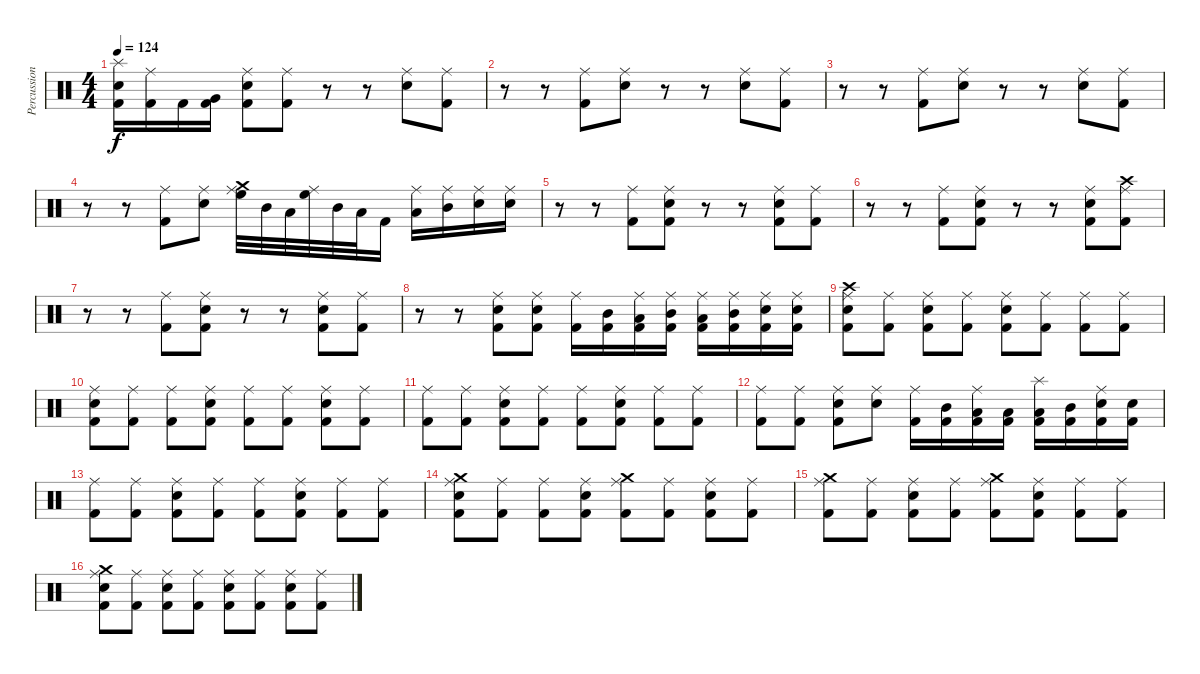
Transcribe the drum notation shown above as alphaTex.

\track ("Percussions" "Percussion") {instrument percussion}
\staff {score}
\articulation defaults
\ts (4 4)
\tempo 124
\clef neutral
\ks c
("Kick (hit) 2" "Electric Snare (hit)" "Splash (hit)").16{dy f} ("Kick (hit) 2" "Ride (middle)").16 "Kick (hit) 2".16 ("Kick (hit) 2" "Very Low Tom (hit)").16 ("Kick (hit) 2" "Electric Snare (hit)" "Ride (middle)").8 ("Kick (hit) 2" "Ride (middle)").8 r.8 r.8 ("Electric Snare (hit)" "Ride (middle)").8 ("Kick (hit) 2" "Ride (middle)").8 |
r.8 r.8 ("Kick (hit) 2" "Ride (middle)").8 ("Electric Snare (hit)" "Ride (middle)").8 r.8 r.8 ("Electric Snare (hit)" "Ride (middle)").8 ("Kick (hit) 2" "Ride (middle)").8 |
r.8 r.8 ("Kick (hit) 2" "Ride (middle)").8 ("Electric Snare (hit)" "Ride (middle)").8 r.8 r.8 ("Electric Snare (hit)" "Ride (middle)").8 ("Kick (hit) 2" "Ride (middle)").8 |
r.8 r.8 ("Kick (hit) 2" "Ride (middle)").8 ("Electric Snare (hit)" "Ride (middle)").8 ("High Floor Tom (hit)" "Crash medium (hit)" "Ride (middle)").32 "Mid Tom (hit)".32 "Low Tom (hit)".32 ("High Floor Tom (hit)" "Ride (middle)").32 "Mid Tom (hit)".32 "Low Tom (hit)".32 "Kick (hit) 2".16 ("Low Tom (hit)" "Ride (middle)").16 ("Mid Tom (hit)" "Ride (middle)").16 ("Electric Snare (hit)" "Ride (middle)").16 ("Electric Snare (hit)" "Ride (middle)").16 |
r.8 r.8 ("Kick (hit) 2" "Ride (middle)").8 ("Kick (hit) 2" "Electric Snare (hit)" "Ride (middle)").8 r.8 r.8 ("Kick (hit) 2" "Electric Snare (hit)" "Ride (middle)").8 ("Kick (hit) 2" "Ride (middle)").8 |
r.8 r.8 ("Kick (hit) 2" "Ride (middle)").8 ("Kick (hit) 2" "Electric Snare (hit)" "Ride (middle)").8 r.8 r.8 ("Kick (hit) 2" "Electric Snare (hit)" "Ride (middle)").8 ("Kick (hit) 2" "Crash high (hit)" "Ride (middle)").8 |
r.8 r.8 ("Kick (hit) 2" "Ride (middle)").8 ("Kick (hit) 2" "Electric Snare (hit)" "Ride (middle)").8 r.8 r.8 ("Kick (hit) 2" "Electric Snare (hit)" "Ride (middle)").8 ("Kick (hit) 2" "Ride (middle)").8 |
r.8 r.8 ("Kick (hit) 2" "Electric Snare (hit)" "Ride (middle)").8 ("Kick (hit) 2" "Electric Snare (hit)" "Ride (middle)").8 ("Kick (hit) 2" "Ride (middle)").16 ("Kick (hit) 2" "Mid Tom (hit)").16 ("Low Tom (hit)" "Kick (hit) 2" "Ride (middle)").16 ("Kick (hit) 2" "Mid Tom (hit)" "Ride (middle)").16 ("Kick (hit) 2" "Low Tom (hit)" "Ride (middle)").16 ("Kick (hit) 2" "Mid Tom (hit)" "Ride (middle)").16 ("Kick (hit) 2" "Electric Snare (hit)" "Ride (middle)").16 ("Kick (hit) 2" "Electric Snare (hit)" "Ride (middle)").16 |
("Kick (hit) 2" "Electric Snare (hit)" "Crash high (hit)" "Ride (middle)").8 ("Kick (hit) 2" "Ride (middle)").8 ("Kick (hit) 2" "Electric Snare (hit)" "Ride (middle)").8 ("Kick (hit) 2" "Ride (middle)").8 ("Kick (hit) 2" "Electric Snare (hit)" "Ride (middle)").8 ("Kick (hit) 2" "Ride (middle)").8 ("Kick (hit) 2" "Ride (middle)").8 ("Kick (hit) 2" "Ride (middle)").8 |
("Kick (hit) 2" "Electric Snare (hit)" "Ride (middle)").8 ("Kick (hit) 2" "Ride (middle)").8 ("Kick (hit) 2" "Ride (middle)").8 ("Kick (hit) 2" "Electric Snare (hit)" "Ride (middle)").8 ("Kick (hit) 2" "Ride (middle)").8 ("Kick (hit) 2" "Ride (middle)").8 ("Kick (hit) 2" "Electric Snare (hit)" "Ride (middle)").8 ("Kick (hit) 2" "Ride (middle)").8 |
("Kick (hit) 2" "Ride (middle)").8 ("Kick (hit) 2" "Ride (middle)").8 ("Kick (hit) 2" "Electric Snare (hit)" "Ride (middle)").8 ("Kick (hit) 2" "Ride (middle)").8 ("Kick (hit) 2" "Ride (middle)").8 ("Kick (hit) 2" "Electric Snare (hit)" "Ride (middle)").8 ("Kick (hit) 2" "Ride (middle)").8 ("Kick (hit) 2" "Ride (middle)").8 |
("Kick (hit) 2" "Ride (middle)").8 ("Kick (hit) 2" "Ride (middle)").8 ("Kick (hit) 2" "Electric Snare (hit)" "Ride (middle)").8 ("Electric Snare (hit)" "Ride (middle)").8 ("Kick (hit) 2" "Ride (middle)").16 ("Kick (hit) 2" "Mid Tom (hit)").16 ("Low Tom (hit)" "Kick (hit) 2" "Ride (middle)").16 ("Kick (hit) 2" "Low Floor Tom (hit)").16 ("Kick (hit) 2" "Low Tom (hit)" "Splash (hit)").16 ("Kick (hit) 2" "Mid Tom (hit)").16 ("Kick (hit) 2" "Electric Snare (hit)" "Ride (middle)").16 ("Kick (hit) 2" "Electric Snare (hit)").16 |
("Kick (hit) 2" "Ride (middle)").8 ("Kick (hit) 2" "Ride (middle)").8 ("Kick (hit) 2" "Electric Snare (hit)" "Ride (middle)").8 ("Kick (hit) 2" "Ride (middle)").8 ("Kick (hit) 2" "Ride (middle)").8 ("Kick (hit) 2" "Electric Snare (hit)" "Ride (middle)").8 ("Kick (hit) 2" "Ride (middle)").8 ("Kick (hit) 2" "Ride (middle)").8 |
("Kick (hit) 2" "Electric Snare (hit)" "Crash medium (hit)" "Ride (middle)").8 ("Kick (hit) 2" "Ride (middle)").8 ("Kick (hit) 2" "Ride (middle)").8 ("Kick (hit) 2" "Electric Snare (hit)" "Ride (middle)").8 ("Kick (hit) 2" "Crash medium (hit)" "Ride (middle)").8 ("Kick (hit) 2" "Ride (middle)").8 ("Kick (hit) 2" "Electric Snare (hit)" "Ride (middle)").8 ("Kick (hit) 2" "Ride (middle)").8 |
("Kick (hit) 2" "Crash medium (hit)" "Ride (middle)").8 ("Kick (hit) 2" "Ride (middle)").8 ("Kick (hit) 2" "Electric Snare (hit)" "Ride (middle)").8 ("Kick (hit) 2" "Ride (middle)").8 ("Kick (hit) 2" "Crash medium (hit)" "Ride (middle)").8 ("Kick (hit) 2" "Electric Snare (hit)" "Ride (middle)").8 ("Kick (hit) 2" "Ride (middle)").8 ("Kick (hit) 2" "Ride (middle)").8 |
("Kick (hit) 2" "Electric Snare (hit)" "Crash medium (hit)" "Ride (middle)").8 ("Kick (hit) 2" "Ride (middle)").8 ("Kick (hit) 2" "Electric Snare (hit)" "Ride (middle)").8 ("Kick (hit) 2" "Ride (middle)").8 ("Kick (hit) 2" "Electric Snare (hit)" "Ride (middle)").8 ("Kick (hit) 2" "Ride (middle)").8 ("Kick (hit) 2" "Electric Snare (hit)" "Ride (middle)").8 ("Kick (hit) 2" "Ride (middle)").8
